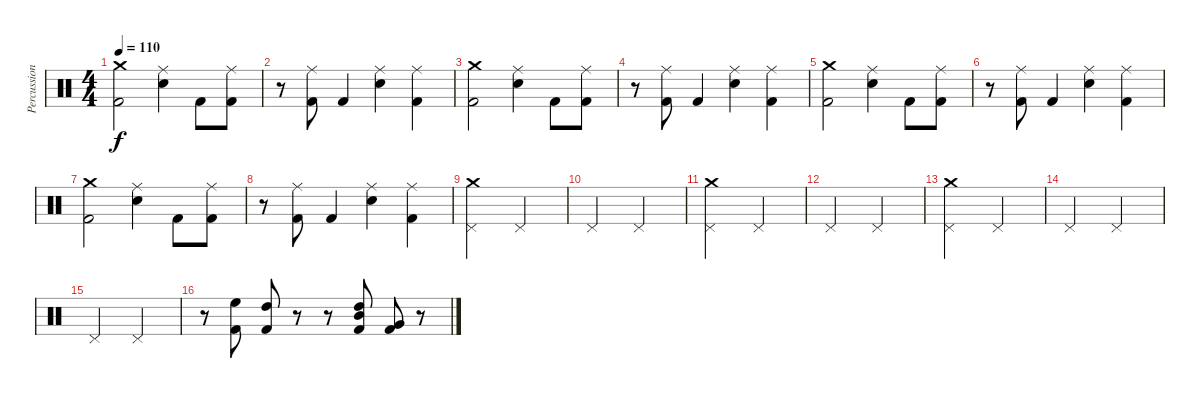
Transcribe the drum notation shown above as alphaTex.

\track ("Percussion" "Percussion") {instrument percussion}
\staff {score}
\articulation defaults
\ts (4 4)
\tempo 110
\clef neutral
\ks c
("Crash medium (hit)" "Kick (hit) 2").2{dy f} ("Ride (middle)" "Electric Snare (hit)").4 "Kick (hit) 2".8 ("Ride (middle)" "Kick (hit) 2").8 |
r.8 ("Ride (middle)" "Kick (hit) 2").8 "Kick (hit) 2".4 ("Ride (middle)" "Electric Snare (hit)").4 ("Ride (middle)" "Kick (hit) 2").4 |
("Crash medium (hit)" "Kick (hit) 2").2 ("Ride (middle)" "Electric Snare (hit)").4 "Kick (hit) 2".8 ("Ride (middle)" "Kick (hit) 2").8 |
r.8 ("Ride (middle)" "Kick (hit) 2").8 "Kick (hit) 2".4 ("Ride (middle)" "Electric Snare (hit)").4 ("Ride (middle)" "Kick (hit) 2").4 |
("Crash medium (hit)" "Kick (hit) 2").2 ("Ride (middle)" "Electric Snare (hit)").4 "Kick (hit) 2".8 ("Ride (middle)" "Kick (hit) 2").8 |
r.8 ("Ride (middle)" "Kick (hit) 2").8 "Kick (hit) 2".4 ("Ride (middle)" "Electric Snare (hit)").4 ("Ride (middle)" "Kick (hit) 2").4 |
("Crash medium (hit)" "Kick (hit) 2").2 ("Ride (middle)" "Electric Snare (hit)").4 "Kick (hit) 2".8 ("Ride (middle)" "Kick (hit) 2").8 |
r.8 ("Ride (middle)" "Kick (hit) 2").8 "Kick (hit) 2".4 ("Ride (middle)" "Electric Snare (hit)").4 ("Ride (middle)" "Kick (hit) 2").4 |
("Pedal Hi-Hat (hit)" "Crash medium (hit)").2 "Pedal Hi-Hat (hit)".2 |
"Pedal Hi-Hat (hit)".2 "Pedal Hi-Hat (hit)".2 |
("Pedal Hi-Hat (hit)" "Crash medium (hit)").2 "Pedal Hi-Hat (hit)".2 |
"Pedal Hi-Hat (hit)".2 "Pedal Hi-Hat (hit)".2 |
("Pedal Hi-Hat (hit)" "Crash medium (hit)").2 "Pedal Hi-Hat (hit)".2 |
"Pedal Hi-Hat (hit)".2 "Pedal Hi-Hat (hit)".2 |
"Pedal Hi-Hat (hit)".2 "Pedal Hi-Hat (hit)".2 |
r.8 ("High Floor Tom (hit)" "Kick (hit) 2").8 ("High Tom (hit)" "Kick (hit) 2").8 r.8 r.8 ("High Tom (hit)" "Mid Tom (hit)" "Kick (hit) 2").8{bd 60} ("Very Low Tom (hit)" "Kick (hit) 2").8{bd 60} r.8
